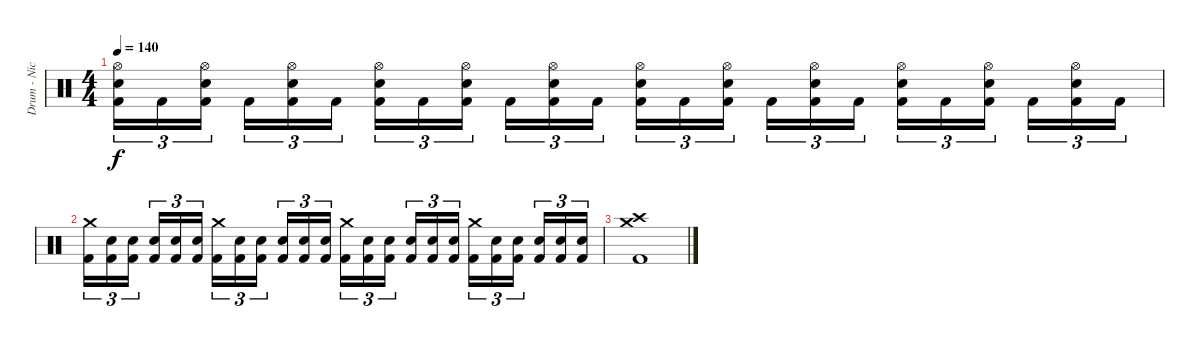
\track ("Drum - Nicholas" "Drum - Nic") {instrument percussion}
\staff {score}
\articulation defaults
\ts (4 4)
\tempo 140
\clef neutral
\ks c
("Hi-Hat (open)" "Snare (hit) 2" "Kick (hit) 2").16{tu (3 2) dy f} "Kick (hit) 2".16{tu (3 2)} ("Hi-Hat (open)" "Snare (hit) 2" "Kick (hit) 2").16{tu (3 2) beam splitsecondary} "Kick (hit) 2".16{tu (3 2)} ("Hi-Hat (open)" "Snare (hit) 2" "Kick (hit) 2").16{tu (3 2)} "Kick (hit) 2".16{tu (3 2)} ("Hi-Hat (open)" "Snare (hit) 2" "Kick (hit) 2").16{tu (3 2)} "Kick (hit) 2".16{tu (3 2)} ("Hi-Hat (open)" "Snare (hit) 2" "Kick (hit) 2").16{tu (3 2) beam splitsecondary} "Kick (hit) 2".16{tu (3 2)} ("Hi-Hat (open)" "Snare (hit) 2" "Kick (hit) 2").16{tu (3 2)} "Kick (hit) 2".16{tu (3 2)} ("Hi-Hat (open)" "Snare (hit) 2" "Kick (hit) 2").16{tu (3 2)} "Kick (hit) 2".16{tu (3 2)} ("Hi-Hat (open)" "Snare (hit) 2" "Kick (hit) 2").16{tu (3 2) beam splitsecondary} "Kick (hit) 2".16{tu (3 2)} ("Hi-Hat (open)" "Snare (hit) 2" "Kick (hit) 2").16{tu (3 2)} "Kick (hit) 2".16{tu (3 2)} ("Hi-Hat (open)" "Snare (hit) 2" "Kick (hit) 2").16{tu (3 2)} "Kick (hit) 2".16{tu (3 2)} ("Hi-Hat (open)" "Snare (hit) 2" "Kick (hit) 2").16{tu (3 2) beam splitsecondary} "Kick (hit) 2".16{tu (3 2)} ("Hi-Hat (open)" "Snare (hit) 2" "Kick (hit) 2").16{tu (3 2)} "Kick (hit) 2".16{tu (3 2)} |
("Crash medium (hit)" "Kick (hit) 2").16{tu (3 2)} ("Snare (hit) 2" "Kick (hit) 2").16{tu (3 2)} ("Snare (hit) 2" "Kick (hit) 2").16{tu (3 2) beam splitsecondary} ("Snare (hit) 2" "Kick (hit) 2").16{tu (3 2)} ("Snare (hit) 2" "Kick (hit) 2").16{tu (3 2)} ("Snare (hit) 2" "Kick (hit) 2").16{tu (3 2)} ("Crash medium (hit)" "Kick (hit) 2").16{tu (3 2)} ("Snare (hit) 2" "Kick (hit) 2").16{tu (3 2)} ("Snare (hit) 2" "Kick (hit) 2").16{tu (3 2) beam splitsecondary} ("Snare (hit) 2" "Kick (hit) 2").16{tu (3 2)} ("Snare (hit) 2" "Kick (hit) 2").16{tu (3 2)} ("Snare (hit) 2" "Kick (hit) 2").16{tu (3 2)} ("Crash medium (hit)" "Kick (hit) 2").16{tu (3 2)} ("Snare (hit) 2" "Kick (hit) 2").16{tu (3 2)} ("Snare (hit) 2" "Kick (hit) 2").16{tu (3 2) beam splitsecondary} ("Snare (hit) 2" "Kick (hit) 2").16{tu (3 2)} ("Snare (hit) 2" "Kick (hit) 2").16{tu (3 2)} ("Snare (hit) 2" "Kick (hit) 2").16{tu (3 2)} ("Crash medium (hit)" "Kick (hit) 2").16{tu (3 2)} ("Snare (hit) 2" "Kick (hit) 2").16{tu (3 2)} ("Snare (hit) 2" "Kick (hit) 2").16{tu (3 2) beam splitsecondary} ("Snare (hit) 2" "Kick (hit) 2").16{tu (3 2)} ("Snare (hit) 2" "Kick (hit) 2").16{tu (3 2)} ("Snare (hit) 2" "Kick (hit) 2").16{tu (3 2)} |
("Crash medium (hit)" "Crash high (hit)" "Kick (hit) 2").1
